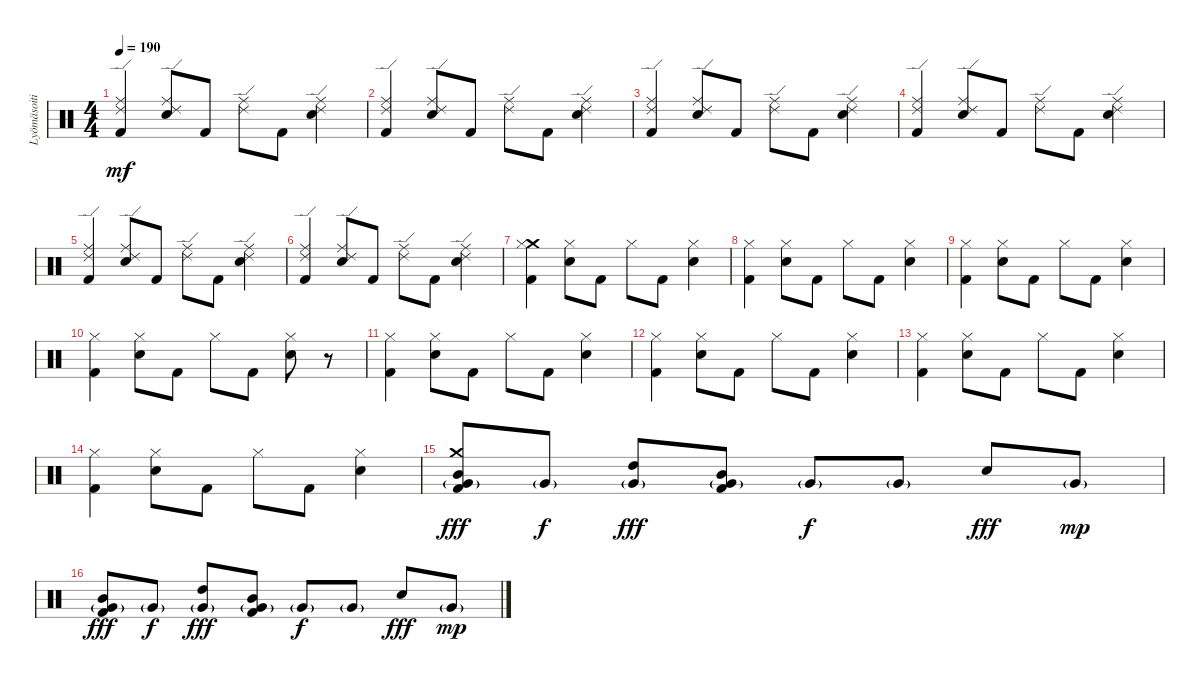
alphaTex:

\track ("Lyömäsoitin" "Lyömäsoiti") {instrument percussion}
\staff {score}
\articulation defaults
\ts (4 4)
\tempo 190
\clef neutral
\ks c
("Ride (edge) 2" "Ride (middle)" "Kick (hit) 2").4{dy mf} ("Ride (edge) 2" "Ride (middle)" "Snare (hit) 2").8 "Kick (hit) 2".8 ("Ride (edge) 2" "Ride (middle)").8 "Kick (hit) 2".8 ("Ride (edge) 2" "Ride (middle)" "Snare (hit) 2").4 |
("Ride (edge) 2" "Ride (middle)" "Kick (hit) 2").4 ("Ride (edge) 2" "Ride (middle)" "Snare (hit) 2").8 "Kick (hit) 2".8 ("Ride (edge) 2" "Ride (middle)").8 "Kick (hit) 2".8 ("Ride (edge) 2" "Ride (middle)" "Snare (hit) 2").4 |
("Ride (edge) 2" "Ride (middle)" "Kick (hit) 2").4 ("Ride (edge) 2" "Ride (middle)" "Snare (hit) 2").8 "Kick (hit) 2".8 ("Ride (edge) 2" "Ride (middle)").8 "Kick (hit) 2".8 ("Ride (edge) 2" "Ride (middle)" "Snare (hit) 2").4 |
("Ride (edge) 2" "Ride (middle)" "Kick (hit) 2").4 ("Ride (edge) 2" "Ride (middle)" "Snare (hit) 2").8 "Kick (hit) 2".8 ("Ride (edge) 2" "Ride (middle)").8 "Kick (hit) 2".8 ("Ride (edge) 2" "Ride (middle)" "Snare (hit) 2").4 |
("Ride (edge) 2" "Ride (middle)" "Kick (hit) 2").4 ("Ride (edge) 2" "Ride (middle)" "Snare (hit) 2").8 "Kick (hit) 2".8 ("Ride (edge) 2" "Ride (middle)").8 "Kick (hit) 2".8 ("Ride (edge) 2" "Ride (middle)" "Snare (hit) 2").4 |
("Ride (edge) 2" "Ride (middle)" "Kick (hit) 2").4 ("Ride (edge) 2" "Ride (middle)" "Snare (hit) 2").8 "Kick (hit) 2".8 ("Ride (edge) 2" "Ride (middle)").8 "Kick (hit) 2".8 ("Ride (edge) 2" "Ride (middle)" "Snare (hit) 2").4 |
("Crash medium (hit)" "Hi-Hat (closed)" "Kick (hit) 2").4 ("Hi-Hat (closed)" "Snare (hit) 2").8 "Kick (hit) 2".8 "Hi-Hat (closed)".8 "Kick (hit) 2".8 ("Hi-Hat (closed)" "Snare (hit) 2").4 |
("Hi-Hat (closed)" "Kick (hit) 2").4 ("Hi-Hat (closed)" "Snare (hit) 2").8 "Kick (hit) 2".8 "Hi-Hat (closed)".8 "Kick (hit) 2".8 ("Hi-Hat (closed)" "Snare (hit) 2").4 |
("Hi-Hat (closed)" "Kick (hit) 2").4 ("Hi-Hat (closed)" "Snare (hit) 2").8 "Kick (hit) 2".8 "Hi-Hat (closed)".8 "Kick (hit) 2".8 ("Hi-Hat (closed)" "Snare (hit) 2").4 |
("Hi-Hat (closed)" "Kick (hit) 2").4 ("Hi-Hat (closed)" "Snare (hit) 2").8 "Kick (hit) 2".8 "Hi-Hat (closed)".8 "Kick (hit) 2".8 ("Hi-Hat (closed)" "Snare (hit) 2").8 r.8 |
("Hi-Hat (closed)" "Kick (hit) 2").4 ("Hi-Hat (closed)" "Snare (hit) 2").8 "Kick (hit) 2".8 "Hi-Hat (closed)".8 "Kick (hit) 2".8 ("Hi-Hat (closed)" "Snare (hit) 2").4 |
("Hi-Hat (closed)" "Kick (hit) 2").4 ("Hi-Hat (closed)" "Snare (hit) 2").8 "Kick (hit) 2".8 "Hi-Hat (closed)".8 "Kick (hit) 2".8 ("Hi-Hat (closed)" "Snare (hit) 2").4 |
("Hi-Hat (closed)" "Kick (hit) 2").4 ("Hi-Hat (closed)" "Snare (hit) 2").8 "Kick (hit) 2".8 "Hi-Hat (closed)".8 "Kick (hit) 2".8 ("Hi-Hat (closed)" "Snare (hit) 2").4 |
("Hi-Hat (closed)" "Kick (hit) 2").4 ("Hi-Hat (closed)" "Snare (hit) 2").8 "Kick (hit) 2".8 "Hi-Hat (closed)".8 "Kick (hit) 2".8 ("Hi-Hat (closed)" "Snare (hit) 2").4 |
("Crash medium (hit)" "Mid Tom (hit)" "Very Low Tom (hit)"{g} "Kick (hit) 2").8{dy fff} "Very Low Tom (hit)"{g}.8{dy f} ("High Tom (hit)" "Very Low Tom (hit)"{g}).8{dy fff} ("Mid Tom (hit)" "Very Low Tom (hit)"{g} "Kick (hit) 2").8 "Very Low Tom (hit)"{g}.8{dy f} "Very Low Tom (hit)"{g}.8 "Electric Snare (hit)".8{dy fff} "Very Low Tom (hit)"{g}.8{dy mp} |
("Mid Tom (hit)" "Very Low Tom (hit)"{g} "Kick (hit) 2").8{dy fff} "Very Low Tom (hit)"{g}.8{dy f} ("High Tom (hit)" "Very Low Tom (hit)"{g}).8{dy fff} ("Mid Tom (hit)" "Very Low Tom (hit)"{g} "Kick (hit) 2").8 "Very Low Tom (hit)"{g}.8{dy f} "Very Low Tom (hit)"{g}.8 "Electric Snare (hit)".8{dy fff} "Very Low Tom (hit)"{g}.8{dy mp}
